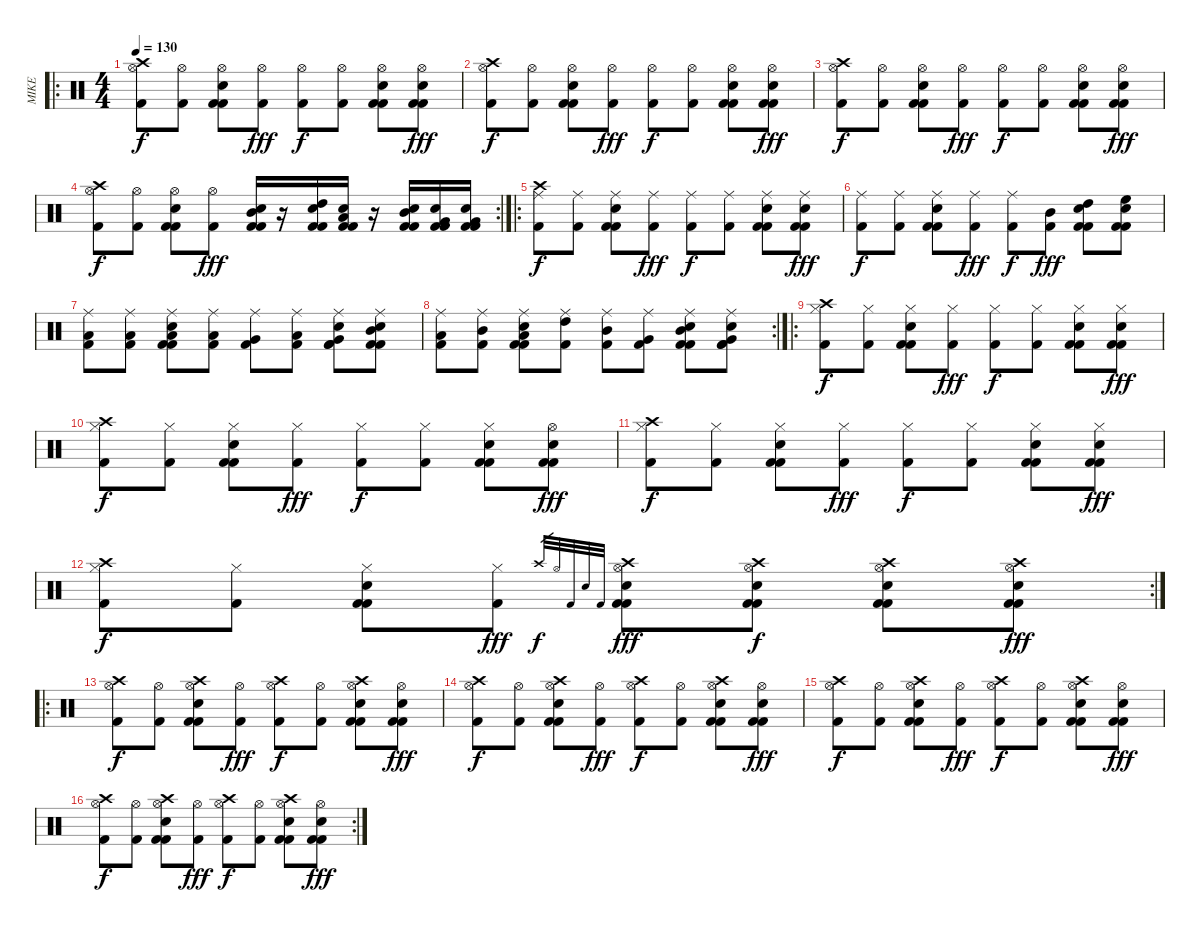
\track ("MIKE" "MIKE") {instrument percussion}
\staff {score}
\articulation defaults
\ro
\ts (4 4)
\tempo 130
\clef neutral
\ks c
("Hi-Hat (open)" "Crash high (hit)" "Kick (hit) 2").8{dy f} ("Hi-Hat (open)" "Kick (hit) 2").8 ("Hi-Hat (open)" "Kick (hit) 2" "Electric Snare (hit)" "Kick (hit) 2").8 ("Hi-Hat (open)" "Kick (hit) 2").8{dy fff} ("Hi-Hat (open)" "Kick (hit) 2").8{dy f} ("Hi-Hat (open)" "Kick (hit) 2").8 ("Hi-Hat (open)" "Kick (hit) 2" "Electric Snare (hit)" "Kick (hit) 2").8 ("Hi-Hat (open)" "Kick (hit) 2" "Electric Snare (hit)" "Kick (hit) 2").8{dy fff} |
("Hi-Hat (open)" "Crash high (hit)" "Kick (hit) 2").8{dy f} ("Hi-Hat (open)" "Kick (hit) 2").8 ("Hi-Hat (open)" "Kick (hit) 2" "Electric Snare (hit)" "Kick (hit) 2").8 ("Hi-Hat (open)" "Kick (hit) 2").8{dy fff} ("Hi-Hat (open)" "Kick (hit) 2").8{dy f} ("Hi-Hat (open)" "Kick (hit) 2").8 ("Hi-Hat (open)" "Kick (hit) 2" "Electric Snare (hit)" "Kick (hit) 2").8 ("Hi-Hat (open)" "Kick (hit) 2" "Electric Snare (hit)" "Kick (hit) 2").8{dy fff} |
("Hi-Hat (open)" "Crash high (hit)" "Kick (hit) 2").8{dy f} ("Hi-Hat (open)" "Kick (hit) 2").8 ("Hi-Hat (open)" "Kick (hit) 2" "Electric Snare (hit)" "Kick (hit) 2").8 ("Hi-Hat (open)" "Kick (hit) 2").8{dy fff} ("Hi-Hat (open)" "Kick (hit) 2").8{dy f} ("Hi-Hat (open)" "Kick (hit) 2").8 ("Hi-Hat (open)" "Kick (hit) 2" "Electric Snare (hit)" "Kick (hit) 2").8 ("Hi-Hat (open)" "Kick (hit) 2" "Electric Snare (hit)" "Kick (hit) 2").8{dy fff} |
\rc 2
("Hi-Hat (open)" "Crash high (hit)" "Kick (hit) 2").8{dy f} ("Hi-Hat (open)" "Kick (hit) 2").8 ("Hi-Hat (open)" "Kick (hit) 2" "Electric Snare (hit)" "Kick (hit) 2").8 ("Hi-Hat (open)" "Kick (hit) 2").8{dy fff} ("Mid Tom (hit)" "Kick (hit) 2" "Electric Snare (hit)" "Kick (hit) 2").16 r.16 ("High Tom (hit)" "Kick (hit) 2" "Electric Snare (hit)" "Kick (hit) 2").16 ("Low Tom (hit)" "Kick (hit) 2" "Electric Snare (hit)" "Kick (hit) 2").16 r.16 ("Mid Tom (hit)" "Kick (hit) 2" "Electric Snare (hit)" "Kick (hit) 2").16 ("Very Low Tom (hit)" "Kick (hit) 2" "Electric Snare (hit)" "Kick (hit) 2").16 ("Very Low Tom (hit)" "Kick (hit) 2" "Electric Snare (hit)" "Kick (hit) 2").16 |
\ro
("Ride (middle)" "Crash high (hit)" "Kick (hit) 2").8{dy f} ("Ride (middle)" "Kick (hit) 2").8 ("Ride (middle)" "Kick (hit) 2" "Electric Snare (hit)" "Kick (hit) 2").8 ("Ride (middle)" "Kick (hit) 2").8{dy fff} ("Ride (middle)" "Kick (hit) 2").8{dy f} ("Ride (middle)" "Kick (hit) 2").8 ("Ride (middle)" "Kick (hit) 2" "Electric Snare (hit)" "Kick (hit) 2").8 ("Ride (middle)" "Kick (hit) 2" "Electric Snare (hit)" "Kick (hit) 2").8{dy fff} |
("Ride (middle)" "Kick (hit) 2").8{dy f} ("Ride (middle)" "Kick (hit) 2").8 ("Ride (middle)" "Kick (hit) 2" "Electric Snare (hit)" "Kick (hit) 2").8 ("Ride (middle)" "Kick (hit) 2").8{dy fff} ("Ride (middle)" "Kick (hit) 2").8{dy f} ("Mid Tom (hit)" "Kick (hit) 2").8{dy fff} ("High Tom (hit)" "Kick (hit) 2" "Electric Snare (hit)" "Kick (hit) 2").8 ("High Floor Tom (hit)" "Kick (hit) 2" "Electric Snare (hit)" "Kick (hit) 2").8 |
("Ride (middle)" "Low Floor Tom (hit)" "Kick (hit) 2").8 ("Ride (middle)" "Low Tom (hit)" "Kick (hit) 2").8 ("Ride (middle)" "Low Floor Tom (hit)" "Kick (hit) 2" "Electric Snare (hit)" "Kick (hit) 2").8 ("Ride (middle)" "Low Tom (hit)" "Kick (hit) 2").8 ("Ride (middle)" "Very Low Tom (hit)" "Kick (hit) 2").8 ("Ride (middle)" "Low Floor Tom (hit)" "Kick (hit) 2").8 ("Ride (middle)" "Very Low Tom (hit)" "Kick (hit) 2" "Electric Snare (hit)" "Kick (hit) 2").8 ("Ride (middle)" "Mid Tom (hit)" "Kick (hit) 2" "Electric Snare (hit)" "Kick (hit) 2").8 |
\rc 2
("Ride (middle)" "Low Tom (hit)" "Kick (hit) 2").8 ("Ride (middle)" "Mid Tom (hit)" "Kick (hit) 2").8 ("Ride (middle)" "Low Tom (hit)" "Kick (hit) 2" "Electric Snare (hit)" "Kick (hit) 2").8 ("Ride (middle)" "High Tom (hit)" "Kick (hit) 2").8 ("Ride (middle)" "Mid Tom (hit)" "Kick (hit) 2").8 ("Ride (middle)" "Very Low Tom (hit)" "Kick (hit) 2").8 ("Ride (middle)" "Mid Tom (hit)" "Kick (hit) 2" "Electric Snare (hit)" "Kick (hit) 2").8 ("Ride (middle)" "Very Low Tom (hit)" "Kick (hit) 2" "Electric Snare (hit)" "Kick (hit) 2").8 |
\ro
("Hi-Hat (closed)" "Crash high (hit)" "Kick (hit) 2").8{dy f} ("Hi-Hat (closed)" "Kick (hit) 2").8 ("Hi-Hat (closed)" "Kick (hit) 2" "Electric Snare (hit)" "Kick (hit) 2").8 ("Hi-Hat (closed)" "Kick (hit) 2").8{dy fff} ("Hi-Hat (closed)" "Kick (hit) 2").8{dy f} ("Hi-Hat (closed)" "Kick (hit) 2").8 ("Hi-Hat (closed)" "Kick (hit) 2" "Electric Snare (hit)" "Kick (hit) 2").8 ("Hi-Hat (closed)" "Kick (hit) 2" "Electric Snare (hit)" "Kick (hit) 2").8{dy fff} |
("Hi-Hat (closed)" "Crash high (hit)" "Kick (hit) 2").8{dy f} ("Hi-Hat (closed)" "Kick (hit) 2").8 ("Hi-Hat (closed)" "Kick (hit) 2" "Electric Snare (hit)" "Kick (hit) 2").8 ("Hi-Hat (closed)" "Kick (hit) 2").8{dy fff} ("Hi-Hat (closed)" "Kick (hit) 2").8{dy f} ("Hi-Hat (closed)" "Kick (hit) 2").8 ("Hi-Hat (closed)" "Kick (hit) 2" "Electric Snare (hit)" "Kick (hit) 2").8 ("Hi-Hat (open)" "Kick (hit) 2" "Electric Snare (hit)" "Kick (hit) 2").8{dy fff} |
("Hi-Hat (closed)" "Crash high (hit)" "Kick (hit) 2").8{dy f} ("Hi-Hat (closed)" "Kick (hit) 2").8 ("Hi-Hat (closed)" "Kick (hit) 2" "Electric Snare (hit)" "Kick (hit) 2").8 ("Hi-Hat (closed)" "Kick (hit) 2").8{dy fff} ("Hi-Hat (closed)" "Kick (hit) 2").8{dy f} ("Hi-Hat (closed)" "Kick (hit) 2").8 ("Hi-Hat (closed)" "Kick (hit) 2" "Electric Snare (hit)" "Kick (hit) 2").8 ("Hi-Hat (closed)" "Kick (hit) 2" "Electric Snare (hit)" "Kick (hit) 2").8{dy fff} |
\rc 2
("Hi-Hat (closed)" "Crash high (hit)" "Kick (hit) 2").8{dy f} ("Hi-Hat (closed)" "Kick (hit) 2").8 ("Hi-Hat (closed)" "Kick (hit) 2" "Electric Snare (hit)" "Kick (hit) 2").8 ("Hi-Hat (closed)" "Kick (hit) 2").8{dy fff} "Crash high (hit)".32{gr dy f} "Hi-Hat (open)".32{gr} "Kick (hit) 2".32{gr} "Electric Snare (hit)".32{gr} "Kick (hit) 2".32{gr} ("Crash high (hit)" "Hi-Hat (open)" "Kick (hit) 2" "Electric Snare (hit)" "Kick (hit) 2").8{dy fff} ("Crash high (hit)" "Hi-Hat (open)" "Kick (hit) 2" "Electric Snare (hit)" "Kick (hit) 2").8{dy f} ("Crash high (hit)" "Hi-Hat (open)" "Kick (hit) 2" "Electric Snare (hit)" "Kick (hit) 2").8 ("Crash high (hit)" "Hi-Hat (open)" "Kick (hit) 2" "Electric Snare (hit)" "Kick (hit) 2").8{dy fff} |
\ro
("Hi-Hat (open)" "Crash high (hit)" "Kick (hit) 2").8{dy f} ("Hi-Hat (open)" "Kick (hit) 2").8 ("Hi-Hat (open)" "Crash high (hit)" "Kick (hit) 2" "Electric Snare (hit)" "Kick (hit) 2").8 ("Hi-Hat (open)" "Kick (hit) 2").8{dy fff} ("Hi-Hat (open)" "Crash high (hit)" "Kick (hit) 2").8{dy f} ("Hi-Hat (open)" "Kick (hit) 2").8 ("Hi-Hat (open)" "Crash high (hit)" "Kick (hit) 2" "Electric Snare (hit)" "Kick (hit) 2").8 ("Hi-Hat (open)" "Kick (hit) 2" "Electric Snare (hit)" "Kick (hit) 2").8{dy fff} |
("Hi-Hat (open)" "Crash high (hit)" "Kick (hit) 2").8{dy f} ("Hi-Hat (open)" "Kick (hit) 2").8 ("Hi-Hat (open)" "Crash high (hit)" "Kick (hit) 2" "Electric Snare (hit)" "Kick (hit) 2").8 ("Hi-Hat (open)" "Kick (hit) 2").8{dy fff} ("Hi-Hat (open)" "Crash high (hit)" "Kick (hit) 2").8{dy f} ("Hi-Hat (open)" "Kick (hit) 2").8 ("Hi-Hat (open)" "Crash high (hit)" "Kick (hit) 2" "Electric Snare (hit)" "Kick (hit) 2").8 ("Hi-Hat (open)" "Kick (hit) 2" "Electric Snare (hit)" "Kick (hit) 2").8{dy fff} |
("Hi-Hat (open)" "Crash high (hit)" "Kick (hit) 2").8{dy f} ("Hi-Hat (open)" "Kick (hit) 2").8 ("Hi-Hat (open)" "Crash high (hit)" "Kick (hit) 2" "Electric Snare (hit)" "Kick (hit) 2").8 ("Hi-Hat (open)" "Kick (hit) 2").8{dy fff} ("Hi-Hat (open)" "Crash high (hit)" "Kick (hit) 2").8{dy f} ("Hi-Hat (open)" "Kick (hit) 2").8 ("Hi-Hat (open)" "Crash high (hit)" "Kick (hit) 2" "Electric Snare (hit)" "Kick (hit) 2").8 ("Hi-Hat (open)" "Kick (hit) 2" "Electric Snare (hit)" "Kick (hit) 2").8{dy fff} |
\rc 2
("Hi-Hat (open)" "Crash high (hit)" "Kick (hit) 2").8{dy f} ("Hi-Hat (open)" "Kick (hit) 2").8 ("Hi-Hat (open)" "Crash high (hit)" "Kick (hit) 2" "Electric Snare (hit)" "Kick (hit) 2").8 ("Hi-Hat (open)" "Kick (hit) 2").8{dy fff} ("Hi-Hat (open)" "Crash high (hit)" "Kick (hit) 2").8{dy f} ("Hi-Hat (open)" "Kick (hit) 2").8 ("Hi-Hat (open)" "Crash high (hit)" "Kick (hit) 2" "Electric Snare (hit)" "Kick (hit) 2").8 ("Hi-Hat (open)" "Kick (hit) 2" "Electric Snare (hit)" "Kick (hit) 2").8{dy fff}
